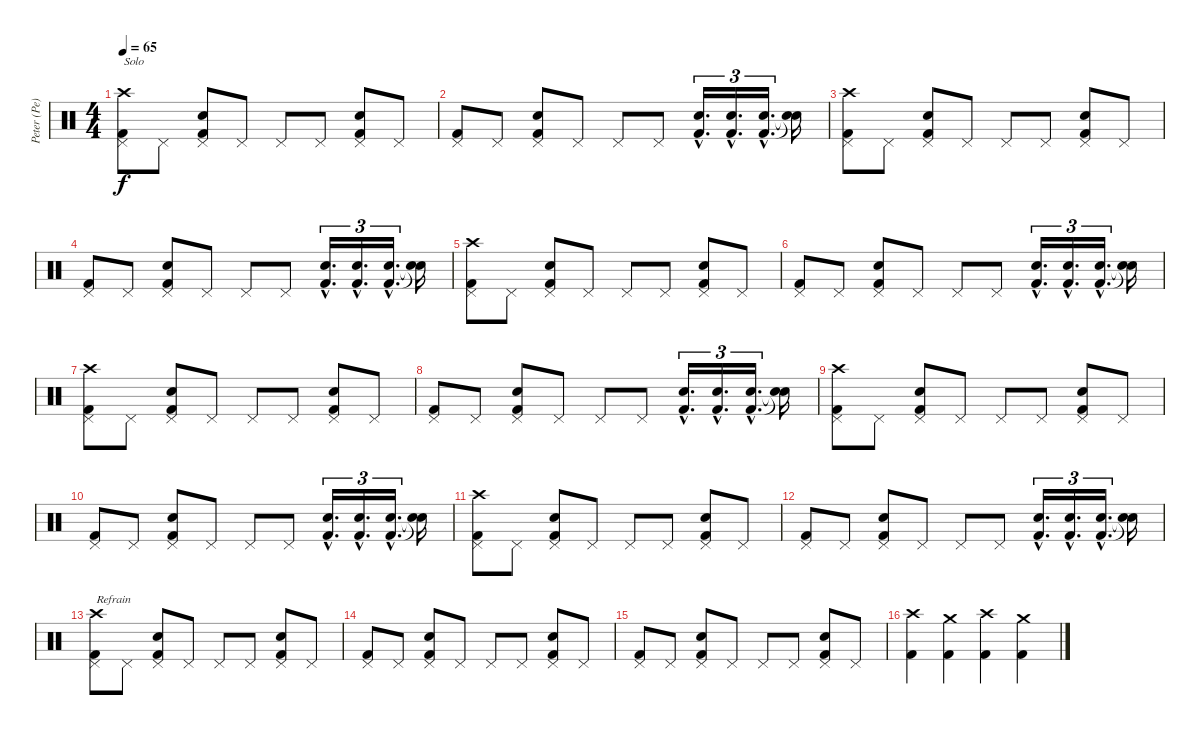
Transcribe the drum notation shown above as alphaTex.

\track ("Peter (Pe) Schorowsky" "Peter (Pe)") {instrument percussion}
\staff {score}
\articulation defaults
\ts (4 4)
\tempo 65
\clef neutral
\ks c
("Crash high (hit)" "Pedal Hi-Hat (hit)" "Kick (hit) 2").8{txt "Solo" dy f} "Pedal Hi-Hat (hit)".8 ("Pedal Hi-Hat (hit)" "Snare (hit) 2" "Kick (hit) 2").8 "Pedal Hi-Hat (hit)".8 "Pedal Hi-Hat (hit)".8 "Pedal Hi-Hat (hit)".8 ("Pedal Hi-Hat (hit)" "Snare (hit) 2" "Kick (hit) 2").8 "Pedal Hi-Hat (hit)".8 |
("Pedal Hi-Hat (hit)" "Kick (hit) 2").8 "Pedal Hi-Hat (hit)".8 ("Pedal Hi-Hat (hit)" "Snare (hit) 2" "Kick (hit) 2").8 "Pedal Hi-Hat (hit)".8 "Pedal Hi-Hat (hit)".8 "Pedal Hi-Hat (hit)".8 ("Snare (hit) 2"{hac} "Kick (hit) 2"{hac}).16{d tu (3 2)} ("Snare (hit) 2"{hac} "Kick (hit) 2"{hac}).16{d tu (3 2)} ("Snare (hit) 2"{hac} "Kick (hit) 2"{hac}).16{d tu (3 2)} ("Snare (hit)"{t} "Snare (hit)"{t}).16 |
("Crash high (hit)" "Pedal Hi-Hat (hit)" "Kick (hit) 2").8 "Pedal Hi-Hat (hit)".8 ("Pedal Hi-Hat (hit)" "Snare (hit) 2" "Kick (hit) 2").8 "Pedal Hi-Hat (hit)".8 "Pedal Hi-Hat (hit)".8 "Pedal Hi-Hat (hit)".8 ("Pedal Hi-Hat (hit)" "Snare (hit) 2" "Kick (hit) 2").8 "Pedal Hi-Hat (hit)".8 |
("Pedal Hi-Hat (hit)" "Kick (hit) 2").8 "Pedal Hi-Hat (hit)".8 ("Pedal Hi-Hat (hit)" "Snare (hit) 2" "Kick (hit) 2").8 "Pedal Hi-Hat (hit)".8 "Pedal Hi-Hat (hit)".8 "Pedal Hi-Hat (hit)".8 ("Snare (hit) 2"{hac} "Kick (hit) 2"{hac}).16{d tu (3 2)} ("Snare (hit) 2"{hac} "Kick (hit) 2"{hac}).16{d tu (3 2)} ("Snare (hit) 2"{hac} "Kick (hit) 2"{hac}).16{d tu (3 2)} ("Snare (hit)"{t} "Snare (hit)"{t}).16 |
("Crash high (hit)" "Pedal Hi-Hat (hit)" "Kick (hit) 2").8 "Pedal Hi-Hat (hit)".8 ("Pedal Hi-Hat (hit)" "Snare (hit) 2" "Kick (hit) 2").8 "Pedal Hi-Hat (hit)".8 "Pedal Hi-Hat (hit)".8 "Pedal Hi-Hat (hit)".8 ("Pedal Hi-Hat (hit)" "Snare (hit) 2" "Kick (hit) 2").8 "Pedal Hi-Hat (hit)".8 |
("Pedal Hi-Hat (hit)" "Kick (hit) 2").8 "Pedal Hi-Hat (hit)".8 ("Pedal Hi-Hat (hit)" "Snare (hit) 2" "Kick (hit) 2").8 "Pedal Hi-Hat (hit)".8 "Pedal Hi-Hat (hit)".8 "Pedal Hi-Hat (hit)".8 ("Snare (hit) 2"{hac} "Kick (hit) 2"{hac}).16{d tu (3 2)} ("Snare (hit) 2"{hac} "Kick (hit) 2"{hac}).16{d tu (3 2)} ("Snare (hit) 2"{hac} "Kick (hit) 2"{hac}).16{d tu (3 2)} ("Snare (hit)"{t} "Snare (hit)"{t}).16 |
("Crash high (hit)" "Pedal Hi-Hat (hit)" "Kick (hit) 2").8 "Pedal Hi-Hat (hit)".8 ("Pedal Hi-Hat (hit)" "Snare (hit) 2" "Kick (hit) 2").8 "Pedal Hi-Hat (hit)".8 "Pedal Hi-Hat (hit)".8 "Pedal Hi-Hat (hit)".8 ("Pedal Hi-Hat (hit)" "Snare (hit) 2" "Kick (hit) 2").8 "Pedal Hi-Hat (hit)".8 |
("Pedal Hi-Hat (hit)" "Kick (hit) 2").8 "Pedal Hi-Hat (hit)".8 ("Pedal Hi-Hat (hit)" "Snare (hit) 2" "Kick (hit) 2").8 "Pedal Hi-Hat (hit)".8 "Pedal Hi-Hat (hit)".8 "Pedal Hi-Hat (hit)".8 ("Snare (hit) 2"{hac} "Kick (hit) 2"{hac}).16{d tu (3 2)} ("Snare (hit) 2"{hac} "Kick (hit) 2"{hac}).16{d tu (3 2)} ("Snare (hit) 2"{hac} "Kick (hit) 2"{hac}).16{d tu (3 2)} ("Snare (hit)"{t} "Snare (hit)"{t}).16 |
("Crash high (hit)" "Pedal Hi-Hat (hit)" "Kick (hit) 2").8 "Pedal Hi-Hat (hit)".8 ("Pedal Hi-Hat (hit)" "Snare (hit) 2" "Kick (hit) 2").8 "Pedal Hi-Hat (hit)".8 "Pedal Hi-Hat (hit)".8 "Pedal Hi-Hat (hit)".8 ("Pedal Hi-Hat (hit)" "Snare (hit) 2" "Kick (hit) 2").8 "Pedal Hi-Hat (hit)".8 |
("Pedal Hi-Hat (hit)" "Kick (hit) 2").8 "Pedal Hi-Hat (hit)".8 ("Pedal Hi-Hat (hit)" "Snare (hit) 2" "Kick (hit) 2").8 "Pedal Hi-Hat (hit)".8 "Pedal Hi-Hat (hit)".8 "Pedal Hi-Hat (hit)".8 ("Snare (hit) 2"{hac} "Kick (hit) 2"{hac}).16{d tu (3 2)} ("Snare (hit) 2"{hac} "Kick (hit) 2"{hac}).16{d tu (3 2)} ("Snare (hit) 2"{hac} "Kick (hit) 2"{hac}).16{d tu (3 2)} ("Snare (hit)"{t} "Snare (hit)"{t}).16 |
("Crash high (hit)" "Pedal Hi-Hat (hit)" "Kick (hit) 2").8 "Pedal Hi-Hat (hit)".8 ("Pedal Hi-Hat (hit)" "Snare (hit) 2" "Kick (hit) 2").8 "Pedal Hi-Hat (hit)".8 "Pedal Hi-Hat (hit)".8 "Pedal Hi-Hat (hit)".8 ("Pedal Hi-Hat (hit)" "Snare (hit) 2" "Kick (hit) 2").8 "Pedal Hi-Hat (hit)".8 |
("Pedal Hi-Hat (hit)" "Kick (hit) 2").8 "Pedal Hi-Hat (hit)".8 ("Pedal Hi-Hat (hit)" "Snare (hit) 2" "Kick (hit) 2").8 "Pedal Hi-Hat (hit)".8 "Pedal Hi-Hat (hit)".8 "Pedal Hi-Hat (hit)".8 ("Snare (hit) 2"{hac} "Kick (hit) 2"{hac}).16{d tu (3 2)} ("Snare (hit) 2"{hac} "Kick (hit) 2"{hac}).16{d tu (3 2)} ("Snare (hit) 2"{hac} "Kick (hit) 2"{hac}).16{d tu (3 2)} ("Snare (hit)"{t} "Snare (hit)"{t}).16 |
("Crash high (hit)" "Pedal Hi-Hat (hit)" "Kick (hit) 2").8{txt "Refrain"} "Pedal Hi-Hat (hit)".8 ("Pedal Hi-Hat (hit)" "Snare (hit) 2" "Kick (hit) 2").8 "Pedal Hi-Hat (hit)".8 "Pedal Hi-Hat (hit)".8 "Pedal Hi-Hat (hit)".8 ("Pedal Hi-Hat (hit)" "Snare (hit) 2" "Kick (hit) 2").8 "Pedal Hi-Hat (hit)".8 |
("Pedal Hi-Hat (hit)" "Kick (hit) 2").8 "Pedal Hi-Hat (hit)".8 ("Pedal Hi-Hat (hit)" "Snare (hit) 2" "Kick (hit) 2").8 "Pedal Hi-Hat (hit)".8 "Pedal Hi-Hat (hit)".8 "Pedal Hi-Hat (hit)".8 ("Pedal Hi-Hat (hit)" "Snare (hit) 2" "Kick (hit) 2").8 "Pedal Hi-Hat (hit)".8 |
("Pedal Hi-Hat (hit)" "Kick (hit) 2").8 "Pedal Hi-Hat (hit)".8 ("Pedal Hi-Hat (hit)" "Snare (hit) 2" "Kick (hit) 2").8 "Pedal Hi-Hat (hit)".8 "Pedal Hi-Hat (hit)".8 "Pedal Hi-Hat (hit)".8 ("Pedal Hi-Hat (hit)" "Snare (hit) 2" "Kick (hit) 2").8 "Pedal Hi-Hat (hit)".8 |
("Crash high (hit)" "Kick (hit) 2").4 ("Crash medium (hit)" "Kick (hit) 2").4 ("Crash high (hit)" "Kick (hit) 2").4 ("Crash medium (hit)" "Kick (hit) 2").4
